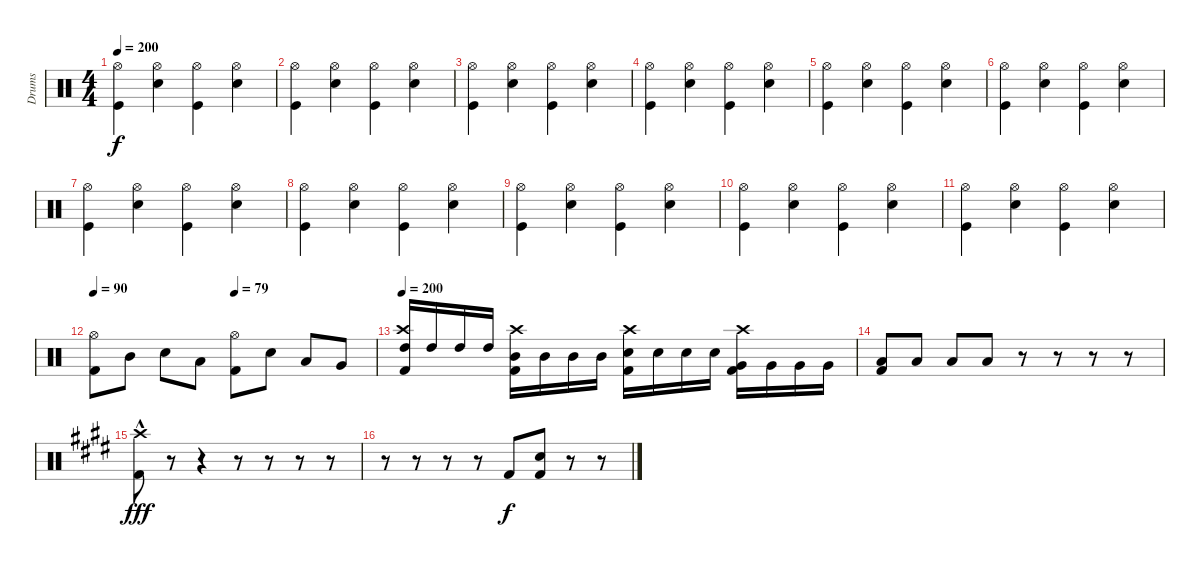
\track ("Drums" "Drums") {instrument percussion}
\staff {score}
\articulation defaults
\ts (4 4)
\tempo 200
\clef neutral
\ks c
("Hi-Hat (open)" "Kick (hit)").4{dy f} ("Hi-Hat (open)" "Snare (hit) 2").4 ("Hi-Hat (open)" "Kick (hit)").4 ("Hi-Hat (open)" "Snare (hit) 2").4 |
("Hi-Hat (open)" "Kick (hit)").4 ("Hi-Hat (open)" "Snare (hit) 2").4 ("Hi-Hat (open)" "Kick (hit)").4 ("Hi-Hat (open)" "Snare (hit) 2").4 |
("Hi-Hat (open)" "Kick (hit)").4 ("Hi-Hat (open)" "Snare (hit) 2").4 ("Hi-Hat (open)" "Kick (hit)").4 ("Hi-Hat (open)" "Snare (hit) 2").4 |
("Hi-Hat (open)" "Kick (hit)").4 ("Hi-Hat (open)" "Snare (hit) 2").4 ("Hi-Hat (open)" "Kick (hit)").4 ("Hi-Hat (open)" "Snare (hit) 2").4 |
("Hi-Hat (open)" "Kick (hit)").4 ("Hi-Hat (open)" "Snare (hit) 2").4 ("Hi-Hat (open)" "Kick (hit)").4 ("Hi-Hat (open)" "Snare (hit) 2").4 |
("Hi-Hat (open)" "Kick (hit)").4 ("Hi-Hat (open)" "Snare (hit) 2").4 ("Hi-Hat (open)" "Kick (hit)").4 ("Hi-Hat (open)" "Snare (hit) 2").4 |
("Hi-Hat (open)" "Kick (hit)").4 ("Hi-Hat (open)" "Snare (hit) 2").4 ("Hi-Hat (open)" "Kick (hit)").4 ("Hi-Hat (open)" "Snare (hit) 2").4 |
("Hi-Hat (open)" "Kick (hit)").4 ("Hi-Hat (open)" "Snare (hit) 2").4 ("Hi-Hat (open)" "Kick (hit)").4 ("Hi-Hat (open)" "Snare (hit) 2").4 |
("Hi-Hat (open)" "Kick (hit)").4 ("Hi-Hat (open)" "Snare (hit) 2").4 ("Hi-Hat (open)" "Kick (hit)").4 ("Hi-Hat (open)" "Snare (hit) 2").4 |
("Hi-Hat (open)" "Kick (hit)").4 ("Hi-Hat (open)" "Snare (hit) 2").4 ("Hi-Hat (open)" "Kick (hit)").4 ("Hi-Hat (open)" "Snare (hit) 2").4 |
("Hi-Hat (open)" "Kick (hit)").4 ("Hi-Hat (open)" "Snare (hit) 2").4 ("Hi-Hat (open)" "Kick (hit)").4 ("Hi-Hat (open)" "Snare (hit) 2").4 |
\tempo 90
\tempo (79 0.5)
("Hi-Hat (open)" "Kick (hit) 2").8 "Mid Tom (hit)".8 "Snare (hit) 2".8 "Low Tom (hit)".8 ("Hi-Hat (open)" "Kick (hit) 2").8 "Snare (hit) 2".8 "Low Tom (hit)".8 "Very Low Tom (hit)".8 |
\tempo 200
("Crash high (hit)" "High Tom (hit)" "Kick (hit) 2").16 "High Tom (hit)".16 "High Tom (hit)".16 "High Tom (hit)".16 ("Crash high (hit)" "Mid Tom (hit)" "Kick (hit) 2").16 "Mid Tom (hit)".16 "Mid Tom (hit)".16 "Mid Tom (hit)".16 ("Crash high (hit)" "Snare (hit) 2" "Kick (hit) 2").16 "Snare (hit) 2".16 "Snare (hit) 2".16 "Snare (hit) 2".16 ("Crash high (hit)" "Very Low Tom (hit)" "Kick (hit) 2").16 "Very Low Tom (hit)".16 "Very Low Tom (hit)".16 "Very Low Tom (hit)".16 |
("Low Floor Tom (hit)" "Kick (hit) 2").8 "Low Floor Tom (hit)".8 "Low Floor Tom (hit)".8 "Low Floor Tom (hit)".8 r.8 r.8 r.8 r.8 |
\ks e
("Crash high (hit)"{hac} "Kick (hit) 2").8{dy fff} r.8 r.4 r.8 r.8 r.8 r.8 |
r.8 r.8 r.8 r.8 "Kick (hit) 2".8{dy f} ("Snare (hit) 2" "Kick (hit) 2").8 r.8 r.8
